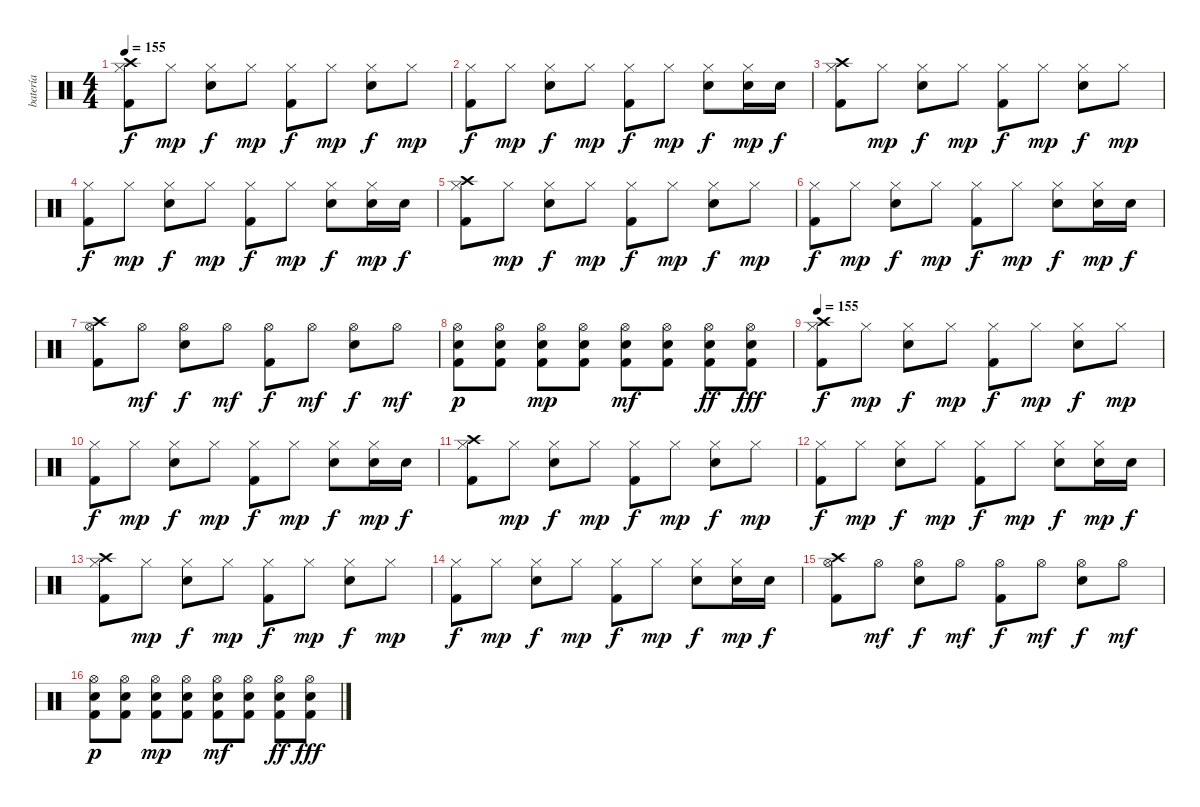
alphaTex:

\track ("batería" "batería") {instrument percussion}
\staff {score}
\articulation defaults
\ts (4 4)
\tempo 155
\clef neutral
\ks c
("Crash high (hit)" "Hi-Hat (closed)" "Kick (hit) 2").8{dy f} "Hi-Hat (closed)".8{dy mp} ("Hi-Hat (closed)" "Electric Snare (hit)").8{dy f} "Hi-Hat (closed)".8{dy mp} ("Hi-Hat (closed)" "Kick (hit) 2").8{dy f} "Hi-Hat (closed)".8{dy mp} ("Hi-Hat (closed)" "Electric Snare (hit)").8{dy f} "Hi-Hat (closed)".8{dy mp} |
("Hi-Hat (closed)" "Kick (hit) 2").8{dy f} "Hi-Hat (closed)".8{dy mp} ("Hi-Hat (closed)" "Electric Snare (hit)").8{dy f} "Hi-Hat (closed)".8{dy mp} ("Hi-Hat (closed)" "Kick (hit) 2").8{dy f} "Hi-Hat (closed)".8{dy mp} ("Hi-Hat (closed)" "Electric Snare (hit)").8{dy f} ("Hi-Hat (closed)" "Electric Snare (hit)").16{dy mp} "Electric Snare (hit)".16{dy f} |
("Crash high (hit)" "Hi-Hat (closed)" "Kick (hit) 2").8 "Hi-Hat (closed)".8{dy mp} ("Hi-Hat (closed)" "Electric Snare (hit)").8{dy f} "Hi-Hat (closed)".8{dy mp} ("Hi-Hat (closed)" "Kick (hit) 2").8{dy f} "Hi-Hat (closed)".8{dy mp} ("Hi-Hat (closed)" "Electric Snare (hit)").8{dy f} "Hi-Hat (closed)".8{dy mp} |
("Hi-Hat (closed)" "Kick (hit) 2").8{dy f} "Hi-Hat (closed)".8{dy mp} ("Hi-Hat (closed)" "Electric Snare (hit)").8{dy f} "Hi-Hat (closed)".8{dy mp} ("Hi-Hat (closed)" "Kick (hit) 2").8{dy f} "Hi-Hat (closed)".8{dy mp} ("Hi-Hat (closed)" "Electric Snare (hit)").8{dy f} ("Hi-Hat (closed)" "Electric Snare (hit)").16{dy mp} "Electric Snare (hit)".16{dy f} |
("Crash high (hit)" "Hi-Hat (closed)" "Kick (hit) 2").8 "Hi-Hat (closed)".8{dy mp} ("Hi-Hat (closed)" "Electric Snare (hit)").8{dy f} "Hi-Hat (closed)".8{dy mp} ("Hi-Hat (closed)" "Kick (hit) 2").8{dy f} "Hi-Hat (closed)".8{dy mp} ("Hi-Hat (closed)" "Electric Snare (hit)").8{dy f} "Hi-Hat (closed)".8{dy mp} |
("Hi-Hat (closed)" "Kick (hit) 2").8{dy f} "Hi-Hat (closed)".8{dy mp} ("Hi-Hat (closed)" "Electric Snare (hit)").8{dy f} "Hi-Hat (closed)".8{dy mp} ("Hi-Hat (closed)" "Kick (hit) 2").8{dy f} "Hi-Hat (closed)".8{dy mp} ("Hi-Hat (closed)" "Electric Snare (hit)").8{dy f} ("Hi-Hat (closed)" "Electric Snare (hit)").16{dy mp} "Electric Snare (hit)".16{dy f} |
("Crash high (hit)" "Hi-Hat (open)" "Kick (hit) 2").8 "Hi-Hat (open)".8{dy mf} ("Hi-Hat (open)" "Electric Snare (hit)").8{dy f} "Hi-Hat (open)".8{dy mf} ("Hi-Hat (open)" "Kick (hit) 2").8{dy f} "Hi-Hat (open)".8{dy mf} ("Hi-Hat (open)" "Electric Snare (hit)").8{dy f} "Hi-Hat (open)".8{dy mf} |
("Hi-Hat (open)" "Electric Snare (hit)" "Kick (hit) 2").8{dy p} ("Hi-Hat (open)" "Electric Snare (hit)" "Kick (hit) 2").8 ("Hi-Hat (open)" "Electric Snare (hit)" "Kick (hit) 2").8{dy mp} ("Hi-Hat (open)" "Electric Snare (hit)" "Kick (hit) 2").8 ("Hi-Hat (open)" "Electric Snare (hit)" "Kick (hit) 2").8{dy mf} ("Hi-Hat (open)" "Electric Snare (hit)" "Kick (hit) 2").8 ("Hi-Hat (open)" "Electric Snare (hit)" "Kick (hit) 2").8{dy ff} ("Hi-Hat (open)" "Electric Snare (hit)" "Kick (hit) 2").8{dy fff} |
\tempo 155
("Crash high (hit)" "Hi-Hat (closed)" "Kick (hit) 2").8{dy f} "Hi-Hat (closed)".8{dy mp} ("Hi-Hat (closed)" "Electric Snare (hit)").8{dy f} "Hi-Hat (closed)".8{dy mp} ("Hi-Hat (closed)" "Kick (hit) 2").8{dy f} "Hi-Hat (closed)".8{dy mp} ("Hi-Hat (closed)" "Electric Snare (hit)").8{dy f} "Hi-Hat (closed)".8{dy mp} |
("Hi-Hat (closed)" "Kick (hit) 2").8{dy f} "Hi-Hat (closed)".8{dy mp} ("Hi-Hat (closed)" "Electric Snare (hit)").8{dy f} "Hi-Hat (closed)".8{dy mp} ("Hi-Hat (closed)" "Kick (hit) 2").8{dy f} "Hi-Hat (closed)".8{dy mp} ("Hi-Hat (closed)" "Electric Snare (hit)").8{dy f} ("Hi-Hat (closed)" "Electric Snare (hit)").16{dy mp} "Electric Snare (hit)".16{dy f} |
("Crash high (hit)" "Hi-Hat (closed)" "Kick (hit) 2").8 "Hi-Hat (closed)".8{dy mp} ("Hi-Hat (closed)" "Electric Snare (hit)").8{dy f} "Hi-Hat (closed)".8{dy mp} ("Hi-Hat (closed)" "Kick (hit) 2").8{dy f} "Hi-Hat (closed)".8{dy mp} ("Hi-Hat (closed)" "Electric Snare (hit)").8{dy f} "Hi-Hat (closed)".8{dy mp} |
("Hi-Hat (closed)" "Kick (hit) 2").8{dy f} "Hi-Hat (closed)".8{dy mp} ("Hi-Hat (closed)" "Electric Snare (hit)").8{dy f} "Hi-Hat (closed)".8{dy mp} ("Hi-Hat (closed)" "Kick (hit) 2").8{dy f} "Hi-Hat (closed)".8{dy mp} ("Hi-Hat (closed)" "Electric Snare (hit)").8{dy f} ("Hi-Hat (closed)" "Electric Snare (hit)").16{dy mp} "Electric Snare (hit)".16{dy f} |
("Crash high (hit)" "Hi-Hat (closed)" "Kick (hit) 2").8 "Hi-Hat (closed)".8{dy mp} ("Hi-Hat (closed)" "Electric Snare (hit)").8{dy f} "Hi-Hat (closed)".8{dy mp} ("Hi-Hat (closed)" "Kick (hit) 2").8{dy f} "Hi-Hat (closed)".8{dy mp} ("Hi-Hat (closed)" "Electric Snare (hit)").8{dy f} "Hi-Hat (closed)".8{dy mp} |
("Hi-Hat (closed)" "Kick (hit) 2").8{dy f} "Hi-Hat (closed)".8{dy mp} ("Hi-Hat (closed)" "Electric Snare (hit)").8{dy f} "Hi-Hat (closed)".8{dy mp} ("Hi-Hat (closed)" "Kick (hit) 2").8{dy f} "Hi-Hat (closed)".8{dy mp} ("Hi-Hat (closed)" "Electric Snare (hit)").8{dy f} ("Hi-Hat (closed)" "Electric Snare (hit)").16{dy mp} "Electric Snare (hit)".16{dy f} |
("Crash high (hit)" "Hi-Hat (open)" "Kick (hit) 2").8 "Hi-Hat (open)".8{dy mf} ("Hi-Hat (open)" "Electric Snare (hit)").8{dy f} "Hi-Hat (open)".8{dy mf} ("Hi-Hat (open)" "Kick (hit) 2").8{dy f} "Hi-Hat (open)".8{dy mf} ("Hi-Hat (open)" "Electric Snare (hit)").8{dy f} "Hi-Hat (open)".8{dy mf} |
("Hi-Hat (open)" "Electric Snare (hit)" "Kick (hit) 2").8{dy p} ("Hi-Hat (open)" "Electric Snare (hit)" "Kick (hit) 2").8 ("Hi-Hat (open)" "Electric Snare (hit)" "Kick (hit) 2").8{dy mp} ("Hi-Hat (open)" "Electric Snare (hit)" "Kick (hit) 2").8 ("Hi-Hat (open)" "Electric Snare (hit)" "Kick (hit) 2").8{dy mf} ("Hi-Hat (open)" "Electric Snare (hit)" "Kick (hit) 2").8 ("Hi-Hat (open)" "Electric Snare (hit)" "Kick (hit) 2").8{dy ff} ("Hi-Hat (open)" "Electric Snare (hit)" "Kick (hit) 2").8{dy fff}
